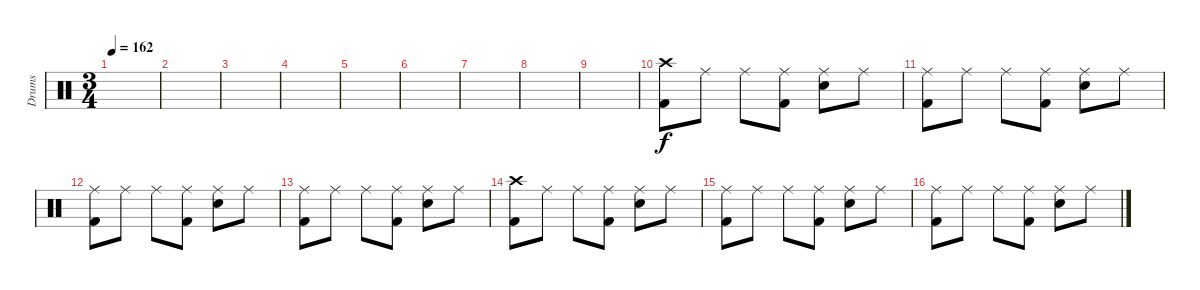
\track ("Drums" "Drums") {instrument percussion}
\staff {score}
\articulation defaults
\ts (3 4)
\tempo 162
\clef neutral
\ks c
|
|
|
|
|
|
|
|
|
("Crash high (hit)" "Kick (hit) 2").8 "Ride (middle)".8 "Ride (middle)".8 ("Ride (middle)" "Kick (hit) 2").8 ("Ride (middle)" "Snare (hit) 2").8 "Ride (middle)".8 |
("Ride (middle)" "Kick (hit) 2").8 "Ride (middle)".8 "Ride (middle)".8 ("Ride (middle)" "Kick (hit) 2").8 ("Ride (middle)" "Snare (hit) 2").8 "Ride (middle)".8 |
("Ride (middle)" "Kick (hit) 2").8 "Ride (middle)".8 "Ride (middle)".8 ("Ride (middle)" "Kick (hit) 2").8 ("Ride (middle)" "Snare (hit) 2").8 "Ride (middle)".8 |
("Ride (middle)" "Kick (hit) 2").8 "Ride (middle)".8 "Ride (middle)".8 ("Ride (middle)" "Kick (hit) 2").8 ("Ride (middle)" "Snare (hit) 2").8 "Ride (middle)".8 |
("Crash high (hit)" "Kick (hit) 2").8 "Ride (middle)".8 "Ride (middle)".8 ("Ride (middle)" "Kick (hit) 2").8 ("Ride (middle)" "Snare (hit) 2").8 "Ride (middle)".8 |
("Ride (middle)" "Kick (hit) 2").8 "Ride (middle)".8 "Ride (middle)".8 ("Ride (middle)" "Kick (hit) 2").8 ("Ride (middle)" "Snare (hit) 2").8 "Ride (middle)".8 |
("Ride (middle)" "Kick (hit) 2").8 "Ride (middle)".8 "Ride (middle)".8 ("Ride (middle)" "Kick (hit) 2").8 ("Ride (middle)" "Snare (hit) 2").8 "Ride (middle)".8
